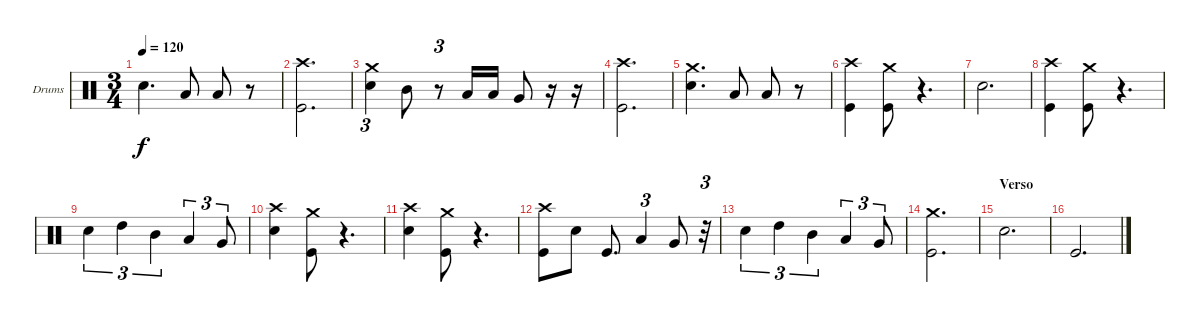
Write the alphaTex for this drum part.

\bracketExtendMode groupsimilarinstruments
\firstSystemTrackNameOrientation horizontal
\otherSystemsTrackNameOrientation horizontal
\track ("Drumkit" "Drums") {instrument percussion}
\staff {score}
\articulation defaults
\ts (3 4)
\tempo 120
\clef neutral
\ks c "Snare (hit) 2".4{d dy f} "Low Tom (hit)".8 "Low Tom (hit)".8
r.8 |
("Crash high (hit)" "Kick (hit)").2{d} |
("Crash medium (hit)" "Snare (hit) 2").4{tu (3 2)} "Mid Tom (hit)".8 r.8{tu (3 2)} "Low Tom (hit)".16 "Low Tom (hit)".16 "Very Low Tom (hit)".8 r.16 r.16 |
("Crash high (hit)" "Kick (hit)").2{d} |
("Crash medium (hit)" "Snare (hit) 2").4{d} "Low Tom (hit)".8 "Low Tom (hit)".8 r.8 |
("Crash high (hit)" "Kick (hit)").4 ("Crash medium (hit)" "Kick (hit)").8 r.4{d} |
"Snare (hit) 2".2{d} |
("Crash high (hit)" "Kick (hit)").4 ("Crash medium (hit)" "Kick (hit)").8 r.4{d} |
"Snare (hit) 2".4{tu (3 2)} "High Tom (hit)".4{tu (3 2)} "Mid Tom (hit)".4{tu (3 2)} "Low Tom (hit)".4{tu (3 2)} "Very Low Tom (hit)".8{tu (3 2)} |
("Crash high (hit)" "Snare (hit) 2").4 ("Crash medium (hit)" "Kick (hit)").8 r.4{d} |
("Crash high (hit)" "Snare (hit) 2").4 ("Crash medium (hit)" "Kick (hit)").8 r.4{d} |
("Crash high (hit)" "Kick (hit)").8 "Snare (hit) 2".8 "Kick (hit)".8{d} "Low Tom (hit)".4{tu (3 2)} "Very Low Tom (hit)".8 r.32{tu (3 2)} |
"Snare (hit) 2".4{tu (3 2)} "High Tom (hit)".4{tu (3 2)} "Mid Tom (hit)".4{tu (3 2)} "Low Tom (hit)".4{tu (3 2)} "Very Low Tom (hit)".8{tu (3 2)} |
("Crash medium (hit)" "Kick (hit)").2{d} |
\section ("" "Verso")
"Snare (hit) 2".2{d} |
"Kick (hit)".2{d}
